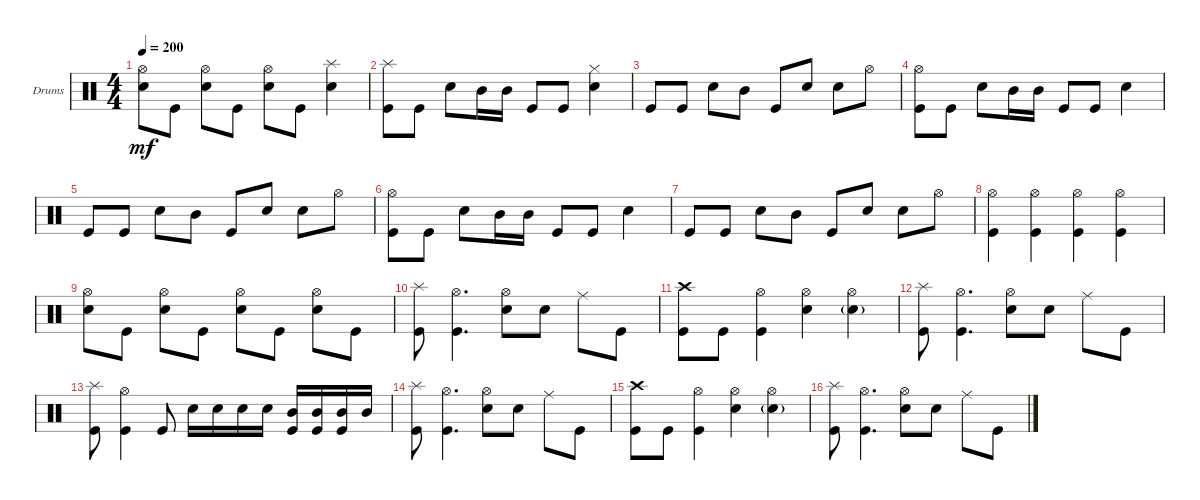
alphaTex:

\defaultSystemsLayout 4
\bracketExtendMode groupsimilarinstruments
\firstSystemTrackNameOrientation horizontal
\otherSystemsTrackNameOrientation horizontal
\track ("Hell on da drums" "Drums") {instrument percussion}
\staff {score}
\articulation defaults
\ts (4 4)
\tempo 200
\clef neutral
\ks c
("Snare (hit) 2" "Hi-Hat (open)").8{dy mf} "Kick (hit)".8 ("Snare (hit) 2" "Hi-Hat (open)").8 "Kick (hit)".8 ("Snare (hit) 2" "Hi-Hat (open)").8 "Kick (hit)".8 ("Snare (hit) 2" "Splash (hit)").4 |
("Kick (hit)" "Splash (hit)").8 "Kick (hit)".8 "Snare (hit) 2".8 "Mid Tom (hit)".16 "Mid Tom (hit)".16 "Kick (hit)".8 "Kick (hit)".8 ("Snare (hit) 2" "Hi-Hat (closed)").4 |
"Kick (hit)".8 "Kick (hit)".8 "Snare (hit) 2".8 "Mid Tom (hit)".8 "Kick (hit)".8 "Snare (hit) 2".8 "Snare (hit) 2".8 "Hi-Hat (open)".8 |
("Kick (hit)" "Hi-Hat (open)").8 "Kick (hit)".8 "Snare (hit) 2".8 "Mid Tom (hit)".16 "Mid Tom (hit)".16 "Kick (hit)".8 "Kick (hit)".8 "Snare (hit) 2".4 |
"Kick (hit)".8 "Kick (hit)".8 "Snare (hit) 2".8 "Mid Tom (hit)".8 "Kick (hit)".8 "Snare (hit) 2".8 "Snare (hit) 2".8 "Hi-Hat (open)".8 |
("Kick (hit)" "Hi-Hat (open)").8 "Kick (hit)".8 "Snare (hit) 2".8 "Mid Tom (hit)".16 "Mid Tom (hit)".16 "Kick (hit)".8 "Kick (hit)".8 "Snare (hit) 2".4 |
"Kick (hit)".8 "Kick (hit)".8 "Snare (hit) 2".8 "Mid Tom (hit)".8 "Kick (hit)".8 "Snare (hit) 2".8 "Snare (hit) 2".8 "Hi-Hat (open)".8 |
("Kick (hit)" "Hi-Hat (open)").4 ("Kick (hit)" "Hi-Hat (open)").4 ("Kick (hit)" "Hi-Hat (open)").4 ("Kick (hit)" "Hi-Hat (open)").4 |
("Snare (hit) 2" "Hi-Hat (open)").8 "Kick (hit)".8 ("Snare (hit) 2" "Hi-Hat (open)").8 "Kick (hit)".8 ("Snare (hit) 2" "Hi-Hat (open)").8 "Kick (hit)".8 ("Snare (hit) 2" "Hi-Hat (open)").8 "Kick (hit)".8 |
("Kick (hit)" "Splash (hit)").8 ("Kick (hit)" "Hi-Hat (open)").4{d} ("Snare (hit) 2" "Hi-Hat (open)").8 "Snare (hit) 2".8 "Ride (middle)".8 "Kick (hit)".8 |
("Kick (hit)" "Crash high (hit)").8 "Kick (hit)".8 ("Kick (hit)" "Hi-Hat (open)").4 ("Snare (hit) 2" "Hi-Hat (open)").4 ("Hi-Hat (open)" "Snare (hit) 2"{g}).4 |
("Kick (hit)" "Splash (hit)").8 ("Kick (hit)" "Hi-Hat (open)").4{d} ("Snare (hit) 2" "Hi-Hat (open)").8 "Snare (hit) 2".8 "Ride (middle)".8 "Kick (hit)".8 |
("Kick (hit)" "Splash (hit)").8 ("Kick (hit)" "Hi-Hat (open)").4 "Kick (hit)".8 "Snare (hit) 2".16 "Snare (hit) 2".16 "Snare (hit) 2".16 "Snare (hit) 2".16 ("Mid Tom (hit)" "Kick (hit)").16 ("Mid Tom (hit)" "Kick (hit)").16 ("Mid Tom (hit)" "Kick (hit)").16 "Mid Tom (hit)".16 |
("Kick (hit)" "Splash (hit)").8 ("Kick (hit)" "Hi-Hat (open)").4{d} ("Snare (hit) 2" "Hi-Hat (open)").8 "Snare (hit) 2".8 "Ride (middle)".8 "Kick (hit)".8 |
("Kick (hit)" "Crash high (hit)").8 "Kick (hit)".8 ("Kick (hit)" "Hi-Hat (open)").4 ("Snare (hit) 2" "Hi-Hat (open)").4 ("Hi-Hat (open)" "Snare (hit) 2"{g}).4 |
("Kick (hit)" "Splash (hit)").8 ("Kick (hit)" "Hi-Hat (open)").4{d} ("Snare (hit) 2" "Hi-Hat (open)").8 "Snare (hit) 2".8 "Ride (middle)".8 "Kick (hit)".8
